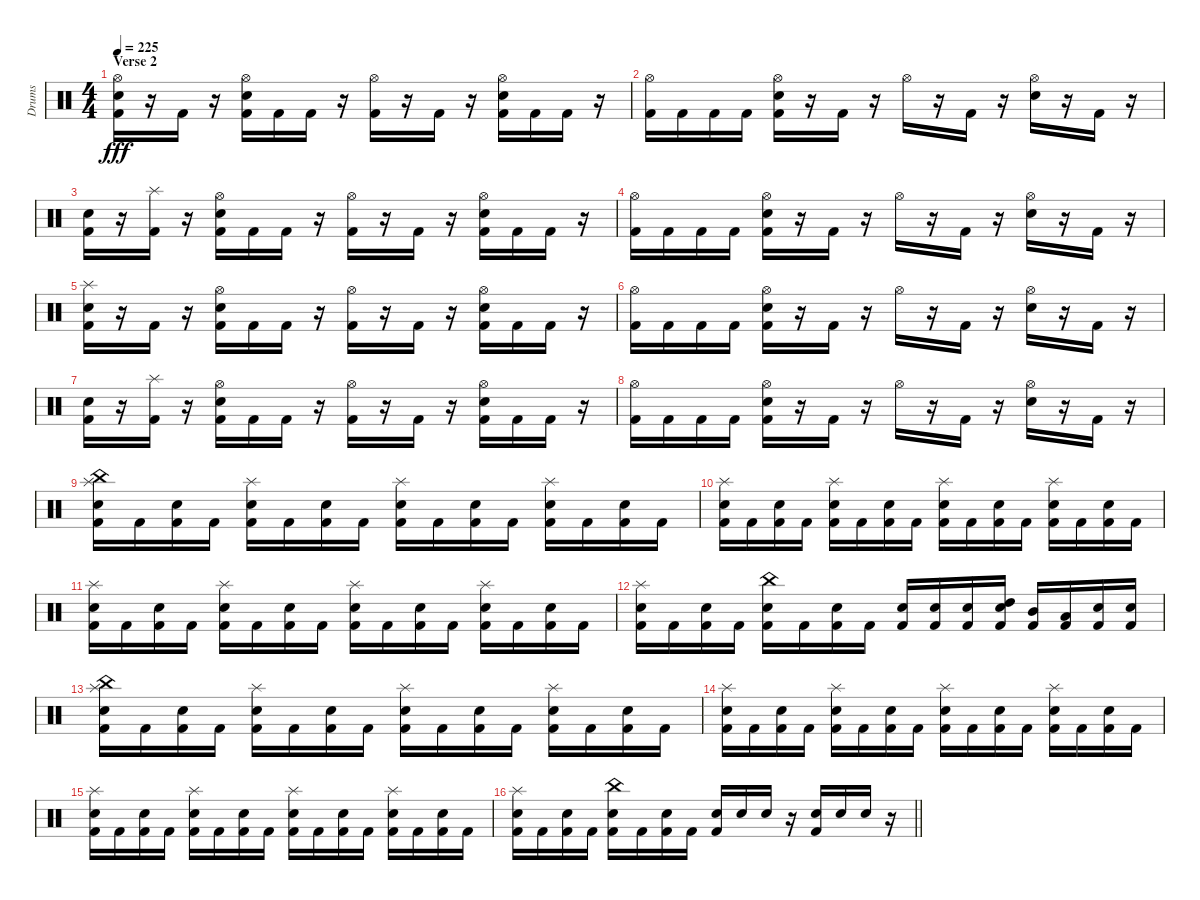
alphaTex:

\track ("Drums" "Drums") {instrument percussion}
\staff {score}
\articulation defaults
\ts (4 4)
\section ("" "Verse 2")
\tempo 225
\clef neutral
\ks c
("Kick (hit) 2" "Snare (hit) 2" "Hi-Hat (open)").16{dy fff} r.16 "Kick (hit) 2".16 r.16 ("Kick (hit) 2" "Snare (hit) 2" "Hi-Hat (open)").16 "Kick (hit) 2".16 "Kick (hit) 2".16 r.16 ("Kick (hit) 2" "Hi-Hat (open)").16 r.16 "Kick (hit) 2".16 r.16 ("Kick (hit) 2" "Snare (hit) 2" "Hi-Hat (open)").16 "Kick (hit) 2".16 "Kick (hit) 2".16 r.16 |
("Kick (hit) 2" "Hi-Hat (open)").16 "Kick (hit) 2".16 "Kick (hit) 2".16 "Kick (hit) 2".16 ("Kick (hit) 2" "Snare (hit) 2" "Hi-Hat (open)").16 r.16 "Kick (hit) 2".16 r.16 "Hi-Hat (open)".16 r.16 "Kick (hit) 2".16 r.16 ("Snare (hit) 2" "Hi-Hat (open)").16 r.16 "Kick (hit) 2".16 r.16 |
("Kick (hit) 2" "Snare (hit) 2").16 r.16 ("Kick (hit) 2" "Splash (hit)").16 r.16 ("Kick (hit) 2" "Snare (hit) 2" "Hi-Hat (open)").16 "Kick (hit) 2".16 "Kick (hit) 2".16 r.16 ("Kick (hit) 2" "Hi-Hat (open)").16 r.16 "Kick (hit) 2".16 r.16 ("Kick (hit) 2" "Snare (hit) 2" "Hi-Hat (open)").16 "Kick (hit) 2".16 "Kick (hit) 2".16 r.16 |
("Kick (hit) 2" "Hi-Hat (open)").16 "Kick (hit) 2".16 "Kick (hit) 2".16 "Kick (hit) 2".16 ("Kick (hit) 2" "Snare (hit) 2" "Hi-Hat (open)").16 r.16 "Kick (hit) 2".16 r.16 "Hi-Hat (open)".16 r.16 "Kick (hit) 2".16 r.16 ("Snare (hit) 2" "Hi-Hat (open)").16 r.16 "Kick (hit) 2".16 r.16 |
("Kick (hit) 2" "Snare (hit) 2" "Splash (hit)").16 r.16 "Kick (hit) 2".16 r.16 ("Kick (hit) 2" "Snare (hit) 2" "Hi-Hat (open)").16 "Kick (hit) 2".16 "Kick (hit) 2".16 r.16 ("Kick (hit) 2" "Hi-Hat (open)").16 r.16 "Kick (hit) 2".16 r.16 ("Kick (hit) 2" "Snare (hit) 2" "Hi-Hat (open)").16 "Kick (hit) 2".16 "Kick (hit) 2".16 r.16 |
("Kick (hit) 2" "Hi-Hat (open)").16 "Kick (hit) 2".16 "Kick (hit) 2".16 "Kick (hit) 2".16 ("Kick (hit) 2" "Snare (hit) 2" "Hi-Hat (open)").16 r.16 "Kick (hit) 2".16 r.16 "Hi-Hat (open)".16 r.16 "Kick (hit) 2".16 r.16 ("Snare (hit) 2" "Hi-Hat (open)").16 r.16 "Kick (hit) 2".16 r.16 |
("Kick (hit) 2" "Snare (hit) 2").16 r.16 ("Kick (hit) 2" "Splash (hit)").16 r.16 ("Kick (hit) 2" "Snare (hit) 2" "Hi-Hat (open)").16 "Kick (hit) 2".16 "Kick (hit) 2".16 r.16 ("Kick (hit) 2" "Hi-Hat (open)").16 r.16 "Kick (hit) 2".16 r.16 ("Kick (hit) 2" "Snare (hit) 2" "Hi-Hat (open)").16 "Kick (hit) 2".16 "Kick (hit) 2".16 r.16 |
("Kick (hit) 2" "Hi-Hat (open)").16 "Kick (hit) 2".16 "Kick (hit) 2".16 "Kick (hit) 2".16 ("Kick (hit) 2" "Snare (hit) 2" "Hi-Hat (open)").16 r.16 "Kick (hit) 2".16 r.16 "Hi-Hat (open)".16 r.16 "Kick (hit) 2".16 r.16 ("Snare (hit) 2" "Hi-Hat (open)").16 r.16 "Kick (hit) 2".16 r.16 |
("Kick (hit) 2" "Snare (hit) 2" "Splash (hit)" "China (hit)").16 "Kick (hit) 2".16 ("Kick (hit) 2" "Snare (hit) 2").16 "Kick (hit) 2".16 ("Kick (hit) 2" "Snare (hit) 2" "Splash (hit)").16 "Kick (hit) 2".16 ("Kick (hit) 2" "Snare (hit) 2").16 "Kick (hit) 2".16 ("Kick (hit) 2" "Snare (hit) 2" "Splash (hit)").16 "Kick (hit) 2".16 ("Kick (hit) 2" "Snare (hit) 2").16 "Kick (hit) 2".16 ("Kick (hit) 2" "Snare (hit) 2" "Splash (hit)").16 "Kick (hit) 2".16 ("Kick (hit) 2" "Snare (hit) 2").16 "Kick (hit) 2".16 |
("Kick (hit) 2" "Snare (hit) 2" "Splash (hit)").16 "Kick (hit) 2".16 ("Kick (hit) 2" "Snare (hit) 2").16 "Kick (hit) 2".16 ("Kick (hit) 2" "Snare (hit) 2" "Splash (hit)").16 "Kick (hit) 2".16 ("Kick (hit) 2" "Snare (hit) 2").16 "Kick (hit) 2".16 ("Kick (hit) 2" "Snare (hit) 2" "Splash (hit)").16 "Kick (hit) 2".16 ("Kick (hit) 2" "Snare (hit) 2").16 "Kick (hit) 2".16 ("Kick (hit) 2" "Snare (hit) 2" "Splash (hit)").16 "Kick (hit) 2".16 ("Kick (hit) 2" "Snare (hit) 2").16 "Kick (hit) 2".16 |
("Kick (hit) 2" "Snare (hit) 2" "Splash (hit)").16 "Kick (hit) 2".16 ("Kick (hit) 2" "Snare (hit) 2").16 "Kick (hit) 2".16 ("Kick (hit) 2" "Snare (hit) 2" "Splash (hit)").16 "Kick (hit) 2".16 ("Kick (hit) 2" "Snare (hit) 2").16 "Kick (hit) 2".16 ("Kick (hit) 2" "Snare (hit) 2" "Splash (hit)").16 "Kick (hit) 2".16 ("Kick (hit) 2" "Snare (hit) 2").16 "Kick (hit) 2".16 ("Kick (hit) 2" "Snare (hit) 2" "Splash (hit)").16 "Kick (hit) 2".16 ("Kick (hit) 2" "Snare (hit) 2").16 "Kick (hit) 2".16 |
("Kick (hit) 2" "Snare (hit) 2" "Splash (hit)").16 "Kick (hit) 2".16 ("Kick (hit) 2" "Snare (hit) 2").16 "Kick (hit) 2".16 ("Kick (hit) 2" "Snare (hit) 2" "China (hit)").16 "Kick (hit) 2".16 ("Kick (hit) 2" "Snare (hit) 2").16 "Kick (hit) 2".16 ("Kick (hit) 2" "Snare (hit) 2").16 ("Kick (hit) 2" "Snare (hit) 2").16 ("Kick (hit) 2" "Snare (hit) 2").16 ("Kick (hit) 2" "Snare (hit) 2" "High Tom (hit)").16 ("Kick (hit) 2" "Mid Tom (hit)").16 ("Kick (hit) 2" "Low Tom (hit)").16 ("Kick (hit) 2" "Snare (hit) 2").16 ("Kick (hit) 2" "Snare (hit) 2").16 |
("Kick (hit) 2" "Snare (hit) 2" "China (hit)" "Splash (hit)").16 "Kick (hit) 2".16 ("Kick (hit) 2" "Snare (hit) 2").16 "Kick (hit) 2".16 ("Kick (hit) 2" "Snare (hit) 2" "Splash (hit)").16 "Kick (hit) 2".16 ("Kick (hit) 2" "Snare (hit) 2").16 "Kick (hit) 2".16 ("Kick (hit) 2" "Snare (hit) 2" "Splash (hit)").16 "Kick (hit) 2".16 ("Kick (hit) 2" "Snare (hit) 2").16 "Kick (hit) 2".16 ("Kick (hit) 2" "Snare (hit) 2" "Splash (hit)").16 "Kick (hit) 2".16 ("Kick (hit) 2" "Snare (hit) 2").16 "Kick (hit) 2".16 |
("Kick (hit) 2" "Snare (hit) 2" "Splash (hit)").16 "Kick (hit) 2".16 ("Kick (hit) 2" "Snare (hit) 2").16 "Kick (hit) 2".16 ("Kick (hit) 2" "Snare (hit) 2" "Splash (hit)").16 "Kick (hit) 2".16 ("Kick (hit) 2" "Snare (hit) 2").16 "Kick (hit) 2".16 ("Kick (hit) 2" "Snare (hit) 2" "Splash (hit)").16 "Kick (hit) 2".16 ("Kick (hit) 2" "Snare (hit) 2").16 "Kick (hit) 2".16 ("Kick (hit) 2" "Snare (hit) 2" "Splash (hit)").16 "Kick (hit) 2".16 ("Kick (hit) 2" "Snare (hit) 2").16 "Kick (hit) 2".16 |
("Kick (hit) 2" "Snare (hit) 2" "Splash (hit)").16 "Kick (hit) 2".16 ("Kick (hit) 2" "Snare (hit) 2").16 "Kick (hit) 2".16 ("Kick (hit) 2" "Snare (hit) 2" "Splash (hit)").16 "Kick (hit) 2".16 ("Kick (hit) 2" "Snare (hit) 2").16 "Kick (hit) 2".16 ("Kick (hit) 2" "Snare (hit) 2" "Splash (hit)").16 "Kick (hit) 2".16 ("Kick (hit) 2" "Snare (hit) 2").16 "Kick (hit) 2".16 ("Kick (hit) 2" "Snare (hit) 2" "Splash (hit)").16 "Kick (hit) 2".16 ("Kick (hit) 2" "Snare (hit) 2").16 "Kick (hit) 2".16 |
\barLineRight lightlight
("Kick (hit) 2" "Snare (hit) 2" "Splash (hit)").16 "Kick (hit) 2".16 ("Kick (hit) 2" "Snare (hit) 2").16 "Kick (hit) 2".16 ("Kick (hit) 2" "Snare (hit) 2" "China (hit)").16 "Kick (hit) 2".16 ("Kick (hit) 2" "Snare (hit) 2").16 "Kick (hit) 2".16 ("Kick (hit) 2" "Snare (hit) 2").16 "Snare (hit) 2".16 "Snare (hit) 2".16 r.16 ("Kick (hit) 2" "Snare (hit) 2").16 "Snare (hit) 2".16 "Snare (hit) 2".16 r.16
